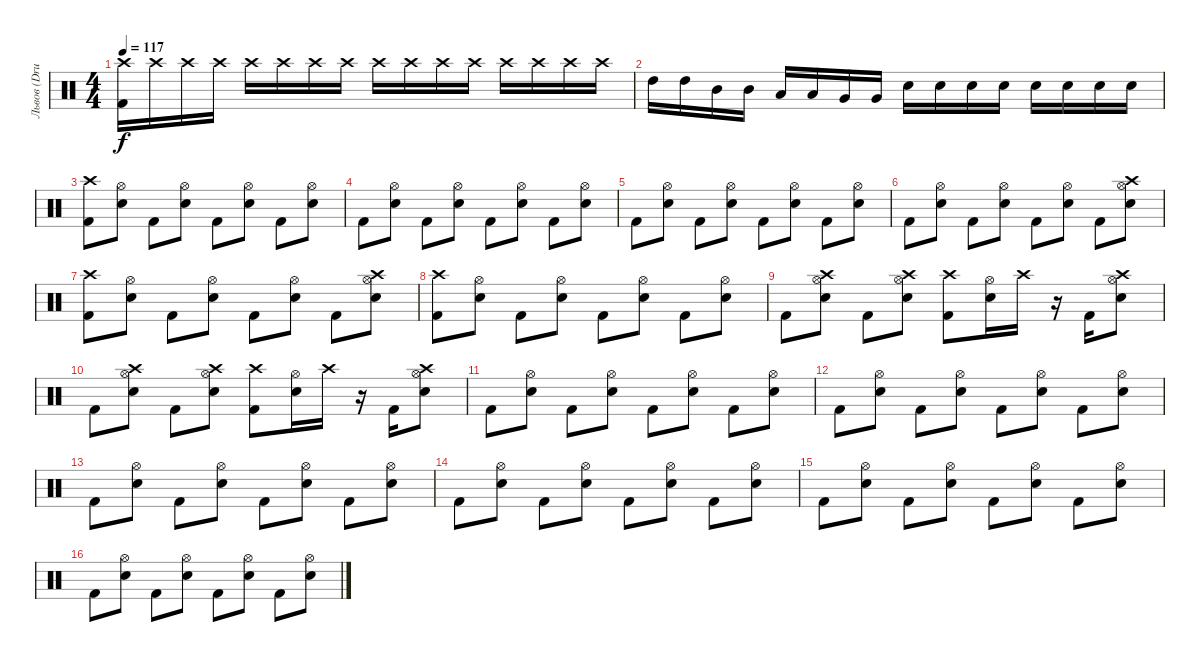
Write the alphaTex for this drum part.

\track ("Львов (Drums)" "Львов (Dru") {instrument percussion}
\staff {score}
\articulation defaults
\ts (4 4)
\tempo 117
\clef neutral
\ks c
("Kick (hit) 2" "Crash high (hit)").16{dy f} "Crash high (hit)".16 "Crash high (hit)".16 "Crash high (hit)".16 "Crash high (hit)".16 "Crash high (hit)".16 "Crash high (hit)".16 "Crash high (hit)".16 "Crash high (hit)".16 "Crash high (hit)".16 "Crash high (hit)".16 "Crash high (hit)".16 "Crash high (hit)".16 "Crash high (hit)".16 "Crash high (hit)".16 "Crash high (hit)".16 |
"High Tom (hit)".16 "High Tom (hit)".16 "Mid Tom (hit)".16 "Mid Tom (hit)".16 "Low Tom (hit)".16 "Low Tom (hit)".16 "Very Low Tom (hit)".16 "Very Low Tom (hit)".16 "Electric Snare (hit)".16 "Electric Snare (hit)".16 "Electric Snare (hit)".16 "Electric Snare (hit)".16 "Electric Snare (hit)".16 "Electric Snare (hit)".16 "Electric Snare (hit)".16 "Electric Snare (hit)".16 |
("Kick (hit) 2" "Crash high (hit)").8 ("Electric Snare (hit)" "Hi-Hat (open)").8 "Kick (hit) 2".8 ("Electric Snare (hit)" "Hi-Hat (open)").8 "Kick (hit) 2".8 ("Electric Snare (hit)" "Hi-Hat (open)").8 "Kick (hit) 2".8 ("Electric Snare (hit)" "Hi-Hat (open)").8 |
"Kick (hit) 2".8 ("Electric Snare (hit)" "Hi-Hat (open)").8 "Kick (hit) 2".8 ("Electric Snare (hit)" "Hi-Hat (open)").8 "Kick (hit) 2".8 ("Electric Snare (hit)" "Hi-Hat (open)").8 "Kick (hit) 2".8 ("Electric Snare (hit)" "Hi-Hat (open)").8 |
"Kick (hit) 2".8 ("Electric Snare (hit)" "Hi-Hat (open)").8 "Kick (hit) 2".8 ("Electric Snare (hit)" "Hi-Hat (open)").8 "Kick (hit) 2".8 ("Electric Snare (hit)" "Hi-Hat (open)").8 "Kick (hit) 2".8 ("Electric Snare (hit)" "Hi-Hat (open)").8 |
"Kick (hit) 2".8 ("Electric Snare (hit)" "Hi-Hat (open)").8 "Kick (hit) 2".8 ("Electric Snare (hit)" "Hi-Hat (open)").8 "Kick (hit) 2".8 ("Electric Snare (hit)" "Hi-Hat (open)").8 "Kick (hit) 2".8 ("Electric Snare (hit)" "Hi-Hat (open)" "Crash high (hit)").8 |
("Kick (hit) 2" "Crash high (hit)").8 ("Electric Snare (hit)" "Hi-Hat (open)").8 "Kick (hit) 2".8 ("Electric Snare (hit)" "Hi-Hat (open)").8 "Kick (hit) 2".8 ("Electric Snare (hit)" "Hi-Hat (open)").8 "Kick (hit) 2".8 ("Electric Snare (hit)" "Hi-Hat (open)" "Crash high (hit)").8 |
("Kick (hit) 2" "Crash high (hit)").8 ("Electric Snare (hit)" "Hi-Hat (open)").8 "Kick (hit) 2".8 ("Electric Snare (hit)" "Hi-Hat (open)").8 "Kick (hit) 2".8 ("Electric Snare (hit)" "Hi-Hat (open)").8 "Kick (hit) 2".8 ("Electric Snare (hit)" "Hi-Hat (open)").8 |
"Kick (hit) 2".8 ("Electric Snare (hit)" "Hi-Hat (open)" "Crash high (hit)").8 "Kick (hit) 2".8 ("Electric Snare (hit)" "Hi-Hat (open)" "Crash high (hit)").8 ("Kick (hit) 2" "Crash high (hit)").8 ("Electric Snare (hit)" "Hi-Hat (open)").16 "Crash high (hit)".16 r.16 "Kick (hit) 2".16 ("Electric Snare (hit)" "Hi-Hat (open)" "Crash high (hit)").8 |
"Kick (hit) 2".8 ("Electric Snare (hit)" "Hi-Hat (open)" "Crash high (hit)").8 "Kick (hit) 2".8 ("Electric Snare (hit)" "Hi-Hat (open)" "Crash high (hit)").8 ("Kick (hit) 2" "Crash high (hit)").8 ("Electric Snare (hit)" "Hi-Hat (open)").16 "Crash high (hit)".16 r.16 "Kick (hit) 2".16 ("Electric Snare (hit)" "Hi-Hat (open)" "Crash high (hit)").8 |
"Kick (hit) 2".8 ("Electric Snare (hit)" "Hi-Hat (open)").8 "Kick (hit) 2".8 ("Electric Snare (hit)" "Hi-Hat (open)").8 "Kick (hit) 2".8 ("Electric Snare (hit)" "Hi-Hat (open)").8 "Kick (hit) 2".8 ("Electric Snare (hit)" "Hi-Hat (open)").8 |
"Kick (hit) 2".8 ("Electric Snare (hit)" "Hi-Hat (open)").8 "Kick (hit) 2".8 ("Electric Snare (hit)" "Hi-Hat (open)").8 "Kick (hit) 2".8 ("Electric Snare (hit)" "Hi-Hat (open)").8 "Kick (hit) 2".8 ("Electric Snare (hit)" "Hi-Hat (open)").8 |
"Kick (hit) 2".8 ("Electric Snare (hit)" "Hi-Hat (open)").8 "Kick (hit) 2".8 ("Electric Snare (hit)" "Hi-Hat (open)").8 "Kick (hit) 2".8 ("Electric Snare (hit)" "Hi-Hat (open)").8 "Kick (hit) 2".8 ("Electric Snare (hit)" "Hi-Hat (open)").8 |
"Kick (hit) 2".8 ("Electric Snare (hit)" "Hi-Hat (open)").8 "Kick (hit) 2".8 ("Electric Snare (hit)" "Hi-Hat (open)").8 "Kick (hit) 2".8 ("Electric Snare (hit)" "Hi-Hat (open)").8 "Kick (hit) 2".8 ("Electric Snare (hit)" "Hi-Hat (open)").8 |
"Kick (hit) 2".8 ("Electric Snare (hit)" "Hi-Hat (open)").8 "Kick (hit) 2".8 ("Electric Snare (hit)" "Hi-Hat (open)").8 "Kick (hit) 2".8 ("Electric Snare (hit)" "Hi-Hat (open)").8 "Kick (hit) 2".8 ("Electric Snare (hit)" "Hi-Hat (open)").8 |
"Kick (hit) 2".8 ("Electric Snare (hit)" "Hi-Hat (open)").8 "Kick (hit) 2".8 ("Electric Snare (hit)" "Hi-Hat (open)").8 "Kick (hit) 2".8 ("Electric Snare (hit)" "Hi-Hat (open)").8 "Kick (hit) 2".8 ("Electric Snare (hit)" "Hi-Hat (open)").8
